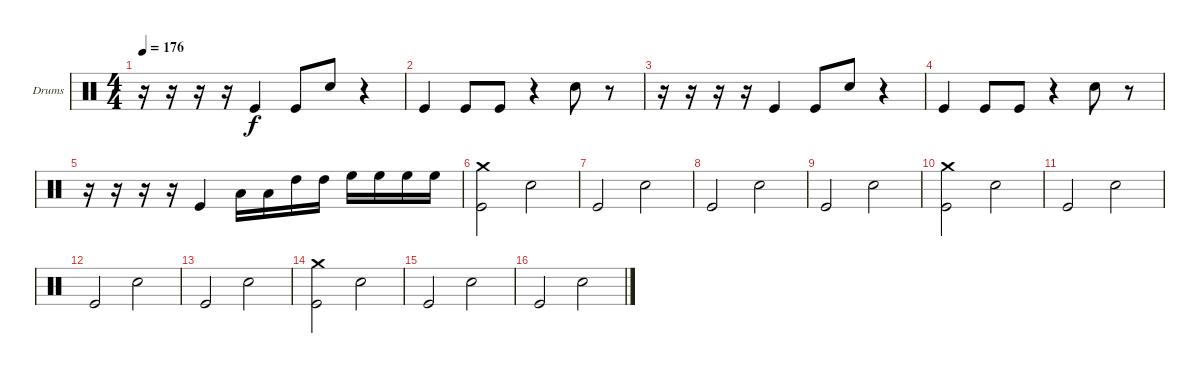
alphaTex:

\bracketExtendMode groupsimilarinstruments
\firstSystemTrackNameOrientation horizontal
\otherSystemsTrackNameOrientation horizontal
\track ("Drumkit" "Drums") {instrument percussion}
\staff {score}
\articulation defaults
\ts (4 4)
\tempo 176
\clef neutral
\ks c
r.16{dy f} r.16 r.16 r.16 "Kick (hit)".4 "Kick (hit)".8 "Snare (hit) 2".8 r.4 |
"Kick (hit)".4 "Kick (hit)".8 "Kick (hit)".8 r.4 "Snare (hit) 2".8 r.8 |
r.16 r.16 r.16 r.16 "Kick (hit)".4 "Kick (hit)".8 "Snare (hit) 2".8 r.4 |
"Kick (hit)".4 "Kick (hit)".8 "Kick (hit)".8 r.4 "Snare (hit) 2".8 r.8 |
r.16 r.16 r.16 r.16 "Kick (hit)".4 "Low Tom (hit)".16 "Low Tom (hit)".16 "High Tom (hit)".16 "High Tom (hit)".16 "High Floor Tom (hit)".16 "High Floor Tom (hit)".16 "High Floor Tom (hit)".16 "High Floor Tom (hit)".16 |
("Crash medium (hit)" "Kick (hit)").2 "Snare (hit) 2".2 |
"Kick (hit)".2 "Snare (hit) 2".2 |
"Kick (hit)".2 "Snare (hit) 2".2 |
"Kick (hit)".2 "Snare (hit) 2".2 |
("Crash medium (hit)" "Kick (hit)").2 "Snare (hit) 2".2 |
"Kick (hit)".2 "Snare (hit) 2".2 |
"Kick (hit)".2 "Snare (hit) 2".2 |
"Kick (hit)".2 "Snare (hit) 2".2 |
("Crash medium (hit)" "Kick (hit)").2 "Snare (hit) 2".2 |
"Kick (hit)".2 "Snare (hit) 2".2 |
"Kick (hit)".2 "Snare (hit) 2".2
